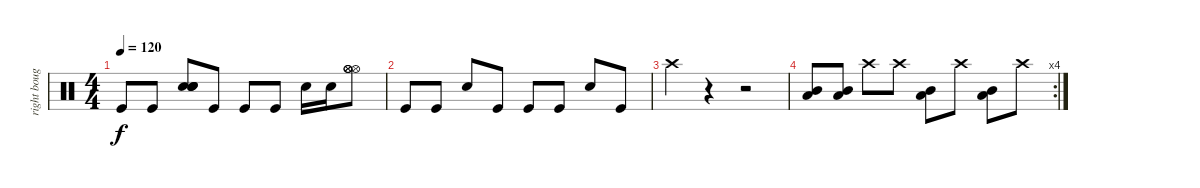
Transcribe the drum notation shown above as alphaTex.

\track ("right bougie" "right boug") {instrument percussion}
\staff {score}
\articulation defaults
\ts (4 4)
\tempo 120
\clef neutral
\ks c "Kick (hit)".8{dy f} "Kick (hit)".8
("Electric Snare (hit)" "Electric Snare (hit)" "Electric Snare (hit)" "Electric Snare (hit)").8 "Kick (hit)".8 "Kick (hit)".8 "Kick (hit)".8 "Electric Snare (hit)".16 "Electric Snare (hit)".16 ("Hi-Hat (open)" "Hi-Hat (open)" "Hi-Hat (open)" "Hi-Hat (open)").8 |
"Kick (hit)".8 "Kick (hit)".8 "Electric Snare (hit)".8 "Kick (hit)".8 "Kick (hit)".8 "Kick (hit)".8 "Electric Snare (hit)".8 "Kick (hit)".8 |
"Crash high (hit)".4 r.4 r.2 |
\rc 4
("Low Tom (hit)" "Mid Tom (hit)").8 ("Low Tom (hit)" "Mid Tom (hit)").8 "Crash high (hit)".8 "Crash high (hit)".8 ("Low Tom (hit)" "Mid Tom (hit)").8 "Crash high (hit)".8 ("Low Tom (hit)" "Mid Tom (hit)").8 "Crash high (hit)".8
